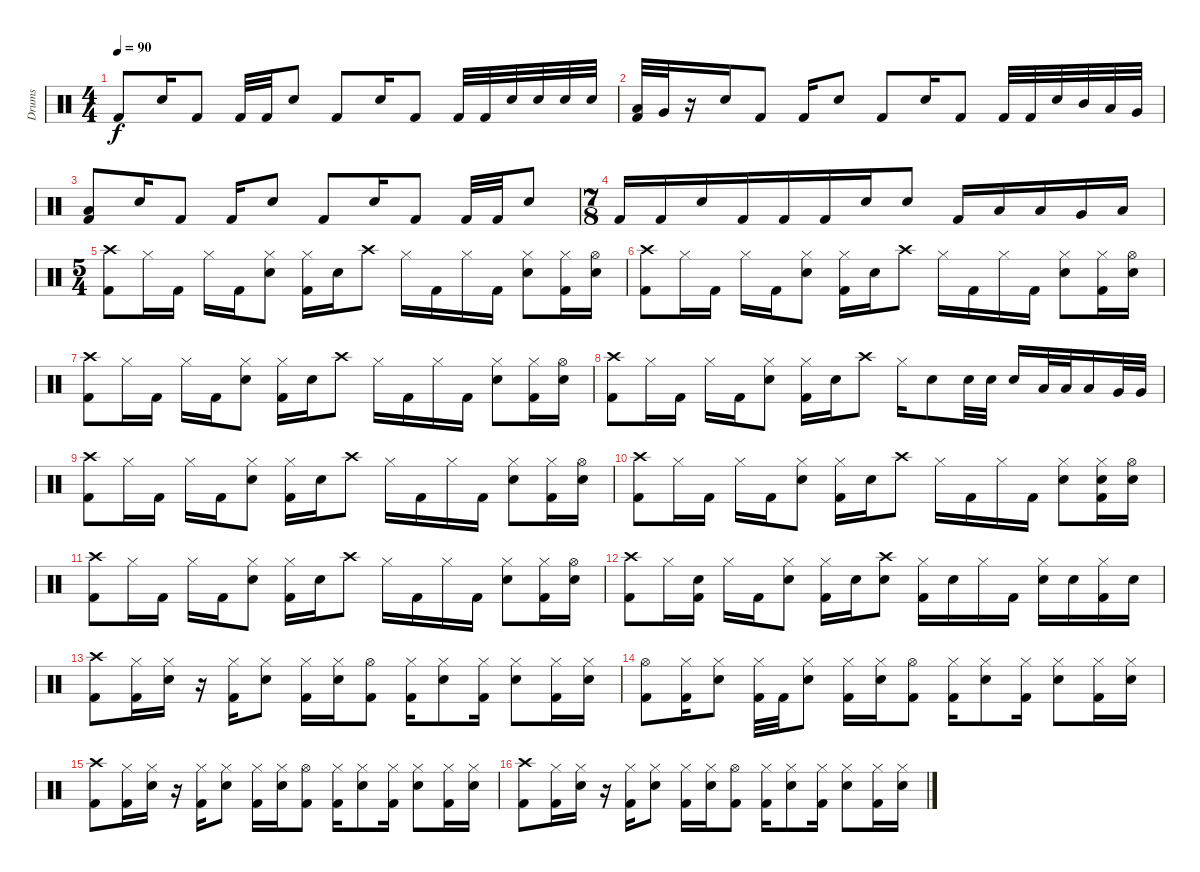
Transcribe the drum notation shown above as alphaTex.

\track ("Drums" "Drums") {instrument percussion}
\staff {score}
\articulation defaults
\ts (4 4)
\tempo 90
\clef neutral
\ks c "Kick (hit) 2".8{dy f} "Snare (hit) 2".16 "Kick (hit) 2".8 "Kick (hit) 2".32 "Kick (hit) 2".32 "Snare (hit) 2".8 "Kick (hit) 2".8 "Snare (hit) 2".16 "Kick (hit) 2".8 "Kick (hit) 2".32 "Kick (hit) 2".32 "Snare (hit) 2".32 "Snare (hit) 2".32 "Snare (hit) 2".32 "Snare (hit) 2".32
|
("Kick (hit) 2" "Low Tom (hit)").32 "Very Low Tom (hit)".32 r.16 "Snare (hit) 2".16 "Kick (hit) 2".8 "Kick (hit) 2".16 "Snare (hit) 2".8 "Kick (hit) 2".8 "Snare (hit) 2".16 "Kick (hit) 2".8 "Kick (hit) 2".32 "Kick (hit) 2".32 "Snare (hit) 2".32 "Mid Tom (hit)".32 "Low Tom (hit)".32 "Very Low Tom (hit)".32 |
("Kick (hit) 2" "Low Floor Tom (hit)").8 "Snare (hit) 2".16 "Kick (hit) 2".8 "Kick (hit) 2".16 "Snare (hit) 2".8 "Kick (hit) 2".8 "Snare (hit) 2".16 "Kick (hit) 2".8 "Kick (hit) 2".32 "Kick (hit) 2".32 "Snare (hit) 2".8 |
\ts (7 8)
"Kick (hit) 2".16 "Kick (hit) 2".16 "Snare (hit) 2".16 "Kick (hit) 2".16 "Kick (hit) 2".16 "Kick (hit) 2".16 "Snare (hit) 2".16 "Snare (hit) 2".8 "Kick (hit) 2".16 "Low Tom (hit)".16 "Low Tom (hit)".16 "Very Low Tom (hit)".16 "Low Floor Tom (hit)".16 |
\ts (5 4)
("Kick (hit) 2" "Crash high (hit)").8 "Hi-Hat (closed)".16 "Kick (hit) 2".16 "Hi-Hat (closed)".16 "Kick (hit) 2".16 ("Snare (hit) 2" "Hi-Hat (closed)").8 ("Kick (hit) 2" "Hi-Hat (closed)").16 "Snare (hit) 2".16 "Crash high (hit)".8 "Hi-Hat (closed)".16 "Kick (hit) 2".16 "Hi-Hat (closed)".16 "Kick (hit) 2".16 ("Snare (hit) 2" "Hi-Hat (closed)").8 ("Kick (hit) 2" "Hi-Hat (closed)").16 ("Snare (hit) 2" "Hi-Hat (open)").16 |
("Kick (hit) 2" "Crash high (hit)").8 "Hi-Hat (closed)".16 "Kick (hit) 2".16 "Hi-Hat (closed)".16 "Kick (hit) 2".16 ("Snare (hit) 2" "Hi-Hat (closed)").8 ("Kick (hit) 2" "Hi-Hat (closed)").16 "Snare (hit) 2".16 "Crash high (hit)".8 "Hi-Hat (closed)".16 "Kick (hit) 2".16 "Hi-Hat (closed)".16 "Kick (hit) 2".16 ("Snare (hit) 2" "Hi-Hat (closed)").8 ("Kick (hit) 2" "Hi-Hat (closed)").16 ("Snare (hit) 2" "Hi-Hat (open)").16 |
("Kick (hit) 2" "Crash high (hit)").8 "Hi-Hat (closed)".16 "Kick (hit) 2".16 "Hi-Hat (closed)".16 "Kick (hit) 2".16 ("Snare (hit) 2" "Hi-Hat (closed)").8 ("Kick (hit) 2" "Hi-Hat (closed)").16 "Snare (hit) 2".16 "Crash high (hit)".8 "Hi-Hat (closed)".16 "Kick (hit) 2".16 "Hi-Hat (closed)".16 "Kick (hit) 2".16 ("Snare (hit) 2" "Hi-Hat (closed)").8 ("Kick (hit) 2" "Hi-Hat (closed)").16 ("Snare (hit) 2" "Hi-Hat (open)").16 |
("Kick (hit) 2" "Crash high (hit)").8 "Hi-Hat (closed)".16 "Kick (hit) 2".16 "Hi-Hat (closed)".16 "Kick (hit) 2".16 ("Snare (hit) 2" "Hi-Hat (closed)").8 ("Kick (hit) 2" "Hi-Hat (closed)").16 "Snare (hit) 2".16 "Crash high (hit)".8 "Hi-Hat (closed)".16 "Snare (hit) 2".8 "Snare (hit) 2".32 "Snare (hit) 2".32 "Snare (hit) 2".16 "Low Tom (hit)".32 "Low Tom (hit)".32 "Low Tom (hit)".16 "Very Low Tom (hit)".32 "Very Low Tom (hit)".32 |
("Kick (hit) 2" "Crash high (hit)").8 "Hi-Hat (closed)".16 "Kick (hit) 2".16 "Hi-Hat (closed)".16 "Kick (hit) 2".16 ("Snare (hit) 2" "Hi-Hat (closed)").8 ("Kick (hit) 2" "Hi-Hat (closed)").16 "Snare (hit) 2".16 "Crash high (hit)".8 "Hi-Hat (closed)".16 "Kick (hit) 2".16 "Hi-Hat (closed)".16 "Kick (hit) 2".16 ("Snare (hit) 2" "Hi-Hat (closed)").8 ("Kick (hit) 2" "Hi-Hat (closed)").16 ("Snare (hit) 2" "Hi-Hat (open)").16 |
("Kick (hit) 2" "Crash high (hit)").8 "Hi-Hat (closed)".16 "Kick (hit) 2".16 "Hi-Hat (closed)".16 "Kick (hit) 2".16 ("Snare (hit) 2" "Hi-Hat (closed)").8 ("Kick (hit) 2" "Hi-Hat (closed)").16 "Snare (hit) 2".16 "Crash high (hit)".8 "Hi-Hat (closed)".16 "Kick (hit) 2".16 "Hi-Hat (closed)".16 "Kick (hit) 2".16 ("Snare (hit) 2" "Hi-Hat (closed)").8 ("Kick (hit) 2" "Snare (hit) 2" "Hi-Hat (closed)").16 ("Snare (hit) 2" "Hi-Hat (open)").16 |
("Kick (hit) 2" "Crash high (hit)").8 "Hi-Hat (closed)".16 "Kick (hit) 2".16 "Hi-Hat (closed)".16 "Kick (hit) 2".16 ("Snare (hit) 2" "Hi-Hat (closed)").8 ("Kick (hit) 2" "Hi-Hat (closed)").16 "Snare (hit) 2".16 "Crash high (hit)".8 "Hi-Hat (closed)".16 "Kick (hit) 2".16 "Hi-Hat (closed)".16 "Kick (hit) 2".16 ("Snare (hit) 2" "Hi-Hat (closed)").8 ("Kick (hit) 2" "Hi-Hat (closed)").16 ("Snare (hit) 2" "Hi-Hat (open)").16 |
("Kick (hit) 2" "Crash high (hit)").8 "Hi-Hat (closed)".16 ("Kick (hit) 2" "Snare (hit) 2").16 "Hi-Hat (closed)".16 "Kick (hit) 2".16 ("Snare (hit) 2" "Hi-Hat (closed)").8 ("Kick (hit) 2" "Hi-Hat (closed)").16 "Snare (hit) 2".16 ("Snare (hit) 2" "Crash high (hit)").8 ("Kick (hit) 2" "Hi-Hat (closed)").16 "Snare (hit) 2".16 "Hi-Hat (closed)".16 "Kick (hit) 2".16 ("Snare (hit) 2" "Hi-Hat (closed)").16 "Snare (hit) 2".16 ("Kick (hit) 2" "Hi-Hat (closed)").16 "Snare (hit) 2".16 |
("Kick (hit) 2" "Crash high (hit)").8 ("Kick (hit) 2" "Hi-Hat (closed)").16 ("Snare (hit) 2" "Hi-Hat (closed)").16 r.16 ("Kick (hit) 2" "Hi-Hat (closed)").16 ("Snare (hit) 2" "Hi-Hat (closed)").8 ("Kick (hit) 2" "Hi-Hat (closed)").16 ("Snare (hit) 2" "Hi-Hat (closed)").16 ("Kick (hit) 2" "Hi-Hat (open)").8 ("Kick (hit) 2" "Hi-Hat (closed)").16 ("Snare (hit) 2" "Hi-Hat (closed)").8 ("Kick (hit) 2" "Hi-Hat (closed)").16 ("Snare (hit) 2" "Hi-Hat (closed)").8 ("Kick (hit) 2" "Hi-Hat (closed)").16 ("Snare (hit) 2" "Hi-Hat (closed)").16 |
("Kick (hit) 2" "Hi-Hat (open)").8 ("Kick (hit) 2" "Hi-Hat (closed)").16 ("Snare (hit) 2" "Hi-Hat (closed)").8 ("Kick (hit) 2" "Hi-Hat (closed)").32 "Kick (hit) 2".32 ("Snare (hit) 2" "Hi-Hat (closed)").8 ("Kick (hit) 2" "Hi-Hat (closed)").16 ("Snare (hit) 2" "Hi-Hat (closed)").16 ("Kick (hit) 2" "Hi-Hat (open)").8 ("Kick (hit) 2" "Hi-Hat (closed)").16 ("Snare (hit) 2" "Hi-Hat (closed)").8 ("Kick (hit) 2" "Hi-Hat (closed)").16 ("Snare (hit) 2" "Hi-Hat (closed)").8 ("Kick (hit) 2" "Hi-Hat (closed)").16 ("Snare (hit) 2" "Hi-Hat (closed)").16 |
("Kick (hit) 2" "Crash high (hit)").8 ("Kick (hit) 2" "Hi-Hat (closed)").16 ("Snare (hit) 2" "Hi-Hat (closed)").16 r.16 ("Kick (hit) 2" "Hi-Hat (closed)").16 ("Snare (hit) 2" "Hi-Hat (closed)").8 ("Kick (hit) 2" "Hi-Hat (closed)").16 ("Snare (hit) 2" "Hi-Hat (closed)").16 ("Kick (hit) 2" "Hi-Hat (open)").8 ("Kick (hit) 2" "Hi-Hat (closed)").16 ("Snare (hit) 2" "Hi-Hat (closed)").8 ("Kick (hit) 2" "Hi-Hat (closed)").16 ("Snare (hit) 2" "Hi-Hat (closed)").8 ("Kick (hit) 2" "Hi-Hat (closed)").16 ("Snare (hit) 2" "Hi-Hat (closed)").16 |
("Kick (hit) 2" "Crash high (hit)").8 ("Kick (hit) 2" "Hi-Hat (closed)").16 ("Snare (hit) 2" "Hi-Hat (closed)").16 r.16 ("Kick (hit) 2" "Hi-Hat (closed)").16 ("Snare (hit) 2" "Hi-Hat (closed)").8 ("Kick (hit) 2" "Hi-Hat (closed)").16 ("Snare (hit) 2" "Hi-Hat (closed)").16 ("Kick (hit) 2" "Hi-Hat (open)").8 ("Kick (hit) 2" "Hi-Hat (closed)").16 ("Snare (hit) 2" "Hi-Hat (closed)").8 ("Kick (hit) 2" "Hi-Hat (closed)").16 ("Snare (hit) 2" "Hi-Hat (closed)").8 ("Kick (hit) 2" "Hi-Hat (closed)").16 ("Snare (hit) 2" "Hi-Hat (closed)").16
